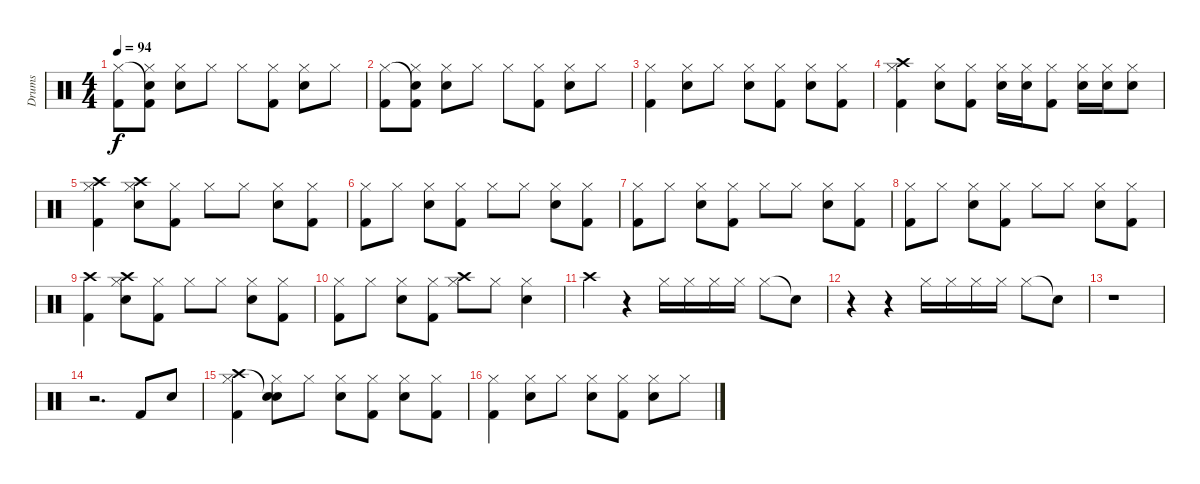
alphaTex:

\track ("Drums" "Drums") {instrument percussion}
\staff {score}
\articulation defaults
\ts (4 4)
\tempo 94
\clef neutral
\ks c
("Hi-Hat (closed)" "Kick (hit) 2").8{dy f} ("Snare (hit)"{t} "Hi-Hat (closed)" "Kick (hit) 2").8 ("Hi-Hat (closed)" "Electric Snare (hit)").8 "Hi-Hat (closed)".8 "Hi-Hat (closed)".8 ("Hi-Hat (closed)" "Kick (hit) 2").8 ("Hi-Hat (closed)" "Electric Snare (hit)").8 "Hi-Hat (closed)".8 |
("Hi-Hat (closed)" "Kick (hit) 2").8 ("Snare (hit)"{t} "Hi-Hat (closed)" "Kick (hit) 2").8 ("Hi-Hat (closed)" "Electric Snare (hit)").8 "Hi-Hat (closed)".8 "Hi-Hat (closed)".8 ("Hi-Hat (closed)" "Kick (hit) 2").8 ("Hi-Hat (closed)" "Electric Snare (hit)").8 "Hi-Hat (closed)".8 |
("Hi-Hat (closed)" "Kick (hit) 2").4 ("Hi-Hat (closed)" "Electric Snare (hit)").8 "Hi-Hat (closed)".8 ("Hi-Hat (closed)" "Electric Snare (hit)").8 ("Hi-Hat (closed)" "Kick (hit) 2").8 ("Hi-Hat (closed)" "Electric Snare (hit)").8 ("Hi-Hat (closed)" "Kick (hit) 2").8 |
("Crash high (hit)" "Hi-Hat (closed)" "Kick (hit) 2").4 ("Hi-Hat (closed)" "Electric Snare (hit)").8 ("Hi-Hat (closed)" "Kick (hit) 2").8 ("Hi-Hat (closed)" "Electric Snare (hit)").16 ("Hi-Hat (closed)" "Electric Snare (hit)").16 ("Hi-Hat (closed)" "Kick (hit) 2").8 ("Hi-Hat (closed)" "Electric Snare (hit)").16 ("Hi-Hat (closed)" "Electric Snare (hit)").16 ("Hi-Hat (closed)" "Electric Snare (hit)").8 |
("Crash high (hit)" "Hi-Hat (closed)" "Kick (hit) 2").4 ("Crash high (hit)" "Hi-Hat (closed)" "Electric Snare (hit)").8 ("Hi-Hat (closed)" "Kick (hit) 2").8 "Hi-Hat (closed)".8 "Hi-Hat (closed)".8 ("Hi-Hat (closed)" "Electric Snare (hit)").8 ("Hi-Hat (closed)" "Kick (hit) 2").8 |
("Hi-Hat (closed)" "Kick (hit) 2").8 "Hi-Hat (closed)".8 ("Hi-Hat (closed)" "Electric Snare (hit)").8 ("Hi-Hat (closed)" "Kick (hit) 2").8 "Hi-Hat (closed)".8 "Hi-Hat (closed)".8 ("Hi-Hat (closed)" "Electric Snare (hit)").8 ("Hi-Hat (closed)" "Kick (hit) 2").8 |
("Hi-Hat (closed)" "Kick (hit) 2").8 "Hi-Hat (closed)".8 ("Hi-Hat (closed)" "Electric Snare (hit)").8 ("Hi-Hat (closed)" "Kick (hit) 2").8 "Hi-Hat (closed)".8 "Hi-Hat (closed)".8 ("Hi-Hat (closed)" "Electric Snare (hit)").8 ("Hi-Hat (closed)" "Kick (hit) 2").8 |
("Hi-Hat (closed)" "Kick (hit) 2").8 "Hi-Hat (closed)".8 ("Hi-Hat (closed)" "Electric Snare (hit)").8 ("Hi-Hat (closed)" "Kick (hit) 2").8 "Hi-Hat (closed)".8 "Hi-Hat (closed)".8 ("Hi-Hat (closed)" "Electric Snare (hit)").8 ("Hi-Hat (closed)" "Kick (hit) 2").8 |
("Crash high (hit)" "Kick (hit) 2").4 ("Crash high (hit)" "Hi-Hat (closed)" "Electric Snare (hit)").8 ("Hi-Hat (closed)" "Kick (hit) 2").8 "Hi-Hat (closed)".8 "Hi-Hat (closed)".8 ("Hi-Hat (closed)" "Electric Snare (hit)").8 ("Hi-Hat (closed)" "Kick (hit) 2").8 |
("Hi-Hat (closed)" "Kick (hit) 2").8 "Hi-Hat (closed)".8 ("Hi-Hat (closed)" "Electric Snare (hit)").8 ("Hi-Hat (closed)" "Kick (hit) 2").8 ("Crash high (hit)" "Hi-Hat (closed)").8 "Hi-Hat (closed)".8 ("Hi-Hat (closed)" "Electric Snare (hit)").4 |
"Crash high (hit)".4 r.4 "Hi-Hat (closed)".16 "Hi-Hat (closed)".16 "Hi-Hat (closed)".16 "Hi-Hat (closed)".16 "Hi-Hat (closed)".8 "Snare (hit)"{t}.8 |
r.4 r.4 "Hi-Hat (closed)".16 "Hi-Hat (closed)".16 "Hi-Hat (closed)".16 "Hi-Hat (closed)".16 "Hi-Hat (closed)".8 "Snare (hit)"{t}.8 |
r.1 |
r.2{d} "Kick (hit) 2".8 "Electric Snare (hit)".8 |
("Crash high (hit)" "Hi-Hat (closed)" "Kick (hit) 2").4 ("Snare (hit)"{t} "Hi-Hat (closed)" "Electric Snare (hit)").8 "Hi-Hat (closed)".8 ("Hi-Hat (closed)" "Electric Snare (hit)").8 ("Hi-Hat (closed)" "Kick (hit) 2").8 ("Hi-Hat (closed)" "Electric Snare (hit)").8 ("Hi-Hat (closed)" "Kick (hit) 2").8 |
("Hi-Hat (closed)" "Kick (hit) 2").4 ("Hi-Hat (closed)" "Electric Snare (hit)").8 "Hi-Hat (closed)".8 ("Hi-Hat (closed)" "Electric Snare (hit)").8 ("Hi-Hat (closed)" "Kick (hit) 2").8 ("Hi-Hat (closed)" "Electric Snare (hit)").8 "Hi-Hat (closed)".8
